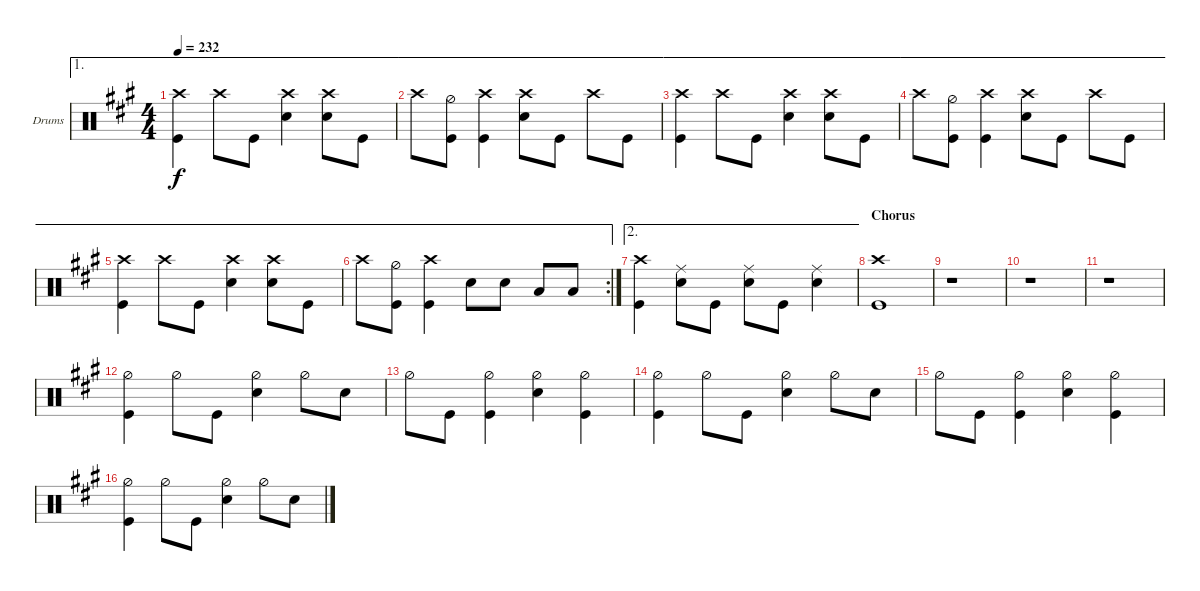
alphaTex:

\defaultSystemsLayout 4
\bracketExtendMode groupsimilarinstruments
\firstSystemTrackNameOrientation horizontal
\otherSystemsTrackNameOrientation horizontal
\track ("Drums" "Drums") {instrument percussion}
\staff {score}
\articulation defaults
\ae 1
\ts (4 4)
\tempo 232
\clef neutral
\ks a
("Crash high (hit)" "Kick (hit)").4{dy f} "Crash high (hit)".8 "Kick (hit)".8 ("Snare (hit) 2" "Crash high (hit)").4 ("Crash high (hit)" "Snare (hit) 2").8 "Kick (hit)".8 |
\ae 1 "Crash high (hit)".8
("Kick (hit)" "Hi-Hat (half)").8 ("Kick (hit)" "Crash high (hit)").4 ("Crash high (hit)" "Snare (hit) 2").8 "Kick (hit)".8 "Crash high (hit)".8 "Kick (hit)".8 |
\ae 1
("Crash high (hit)" "Kick (hit)").4 "Crash high (hit)".8 "Kick (hit)".8 ("Snare (hit) 2" "Crash high (hit)").4 ("Crash high (hit)" "Snare (hit) 2").8 "Kick (hit)".8 |
\ae 1 "Crash high (hit)".8
("Kick (hit)" "Hi-Hat (half)").8 ("Kick (hit)" "Crash high (hit)").4 ("Crash high (hit)" "Snare (hit) 2").8 "Kick (hit)".8 "Crash high (hit)".8 "Kick (hit)".8 |
\ae 1
("Crash high (hit)" "Kick (hit)").4 "Crash high (hit)".8 "Kick (hit)".8 ("Snare (hit) 2" "Crash high (hit)").4 ("Crash high (hit)" "Snare (hit) 2").8 "Kick (hit)".8 |
\ae 1
\rc 2 "Crash high (hit)".8
("Kick (hit)" "Hi-Hat (half)").8 ("Kick (hit)" "Crash high (hit)").4 "Snare (hit) 2".8 "Snare (hit) 2".8 "Low Tom (hit)".8 "Low Tom (hit)".8 |
\ae 2
("Kick (hit)" "Crash high (hit)").4 ("Snare (hit) 2" "Ride (middle)").8 "Kick (hit)".8 ("Snare (hit) 2" "Ride (middle)").8 "Kick (hit)".8 ("Ride (middle)" "Snare (hit) 2").4 |
\section ("" "Chorus")
("Kick (hit)" "Crash high (hit)").1 |
r.1 |
r.1 |
r.1 |
("Kick (hit)" "Hi-Hat (half)").4 "Hi-Hat (half)".8 "Kick (hit)".8 ("Snare (hit) 2" "Hi-Hat (half)").4 "Hi-Hat (half)".8 "Snare (hit) 2".8 |
"Hi-Hat (half)".8 "Kick (hit)".8 ("Kick (hit)" "Hi-Hat (half)").4 ("Snare (hit) 2" "Hi-Hat (half)").4 ("Kick (hit)" "Hi-Hat (half)").4 |
("Kick (hit)" "Hi-Hat (half)").4 "Hi-Hat (half)".8 "Kick (hit)".8 ("Snare (hit) 2" "Hi-Hat (half)").4 "Hi-Hat (half)".8 "Snare (hit) 2".8 |
"Hi-Hat (half)".8 "Kick (hit)".8 ("Kick (hit)" "Hi-Hat (half)").4 ("Snare (hit) 2" "Hi-Hat (half)").4 ("Kick (hit)" "Hi-Hat (half)").4 |
("Kick (hit)" "Hi-Hat (half)").4 "Hi-Hat (half)".8 "Kick (hit)".8 ("Snare (hit) 2" "Hi-Hat (half)").4 "Hi-Hat (half)".8 "Snare (hit) 2".8
